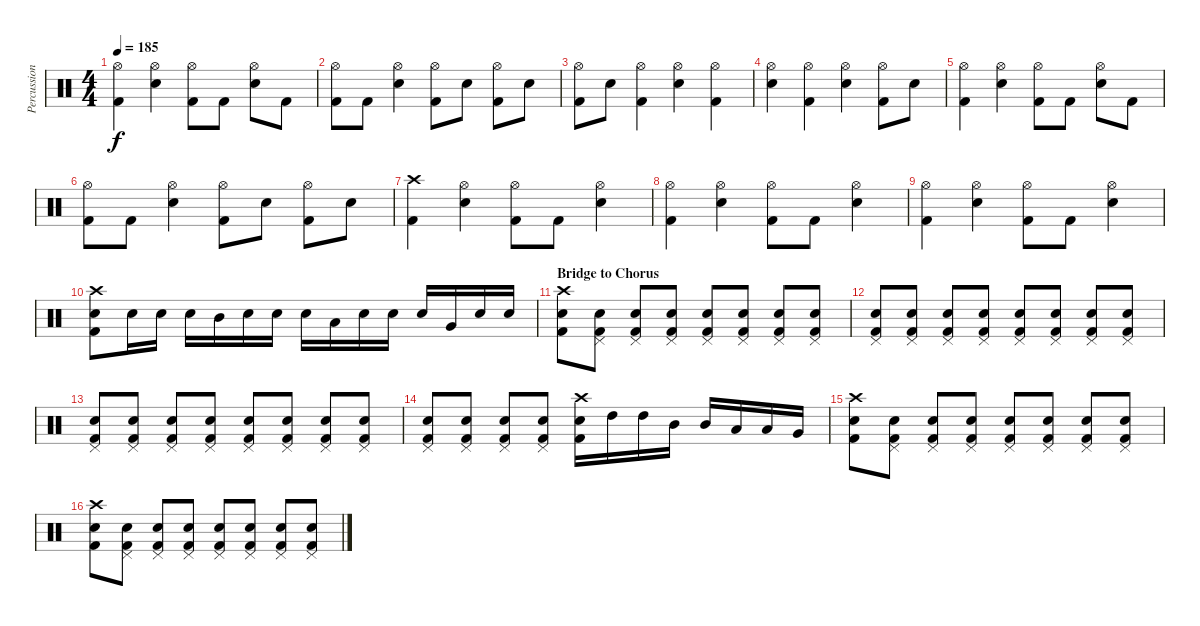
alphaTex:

\track ("Percussions" "Percussion") {instrument percussion}
\staff {score}
\articulation defaults
\ts (4 4)
\tempo 185
\clef neutral
\ks c
("Hi-Hat (open)" "Kick (hit) 2").4{dy f} ("Hi-Hat (open)" "Snare (hit) 2").4 ("Hi-Hat (open)" "Kick (hit) 2").8 "Kick (hit) 2".8 ("Hi-Hat (open)" "Snare (hit) 2").8 "Kick (hit) 2".8 |
("Hi-Hat (open)" "Kick (hit) 2").8 "Kick (hit) 2".8 ("Hi-Hat (open)" "Snare (hit) 2").4 ("Hi-Hat (open)" "Kick (hit) 2").8 "Snare (hit) 2".8 ("Hi-Hat (open)" "Kick (hit) 2").8 "Snare (hit) 2".8 |
("Hi-Hat (open)" "Kick (hit) 2").8 "Snare (hit) 2".8 ("Hi-Hat (open)" "Kick (hit) 2").4 ("Hi-Hat (open)" "Snare (hit) 2").4 ("Hi-Hat (open)" "Kick (hit) 2").4 |
("Hi-Hat (open)" "Snare (hit) 2").4 ("Hi-Hat (open)" "Kick (hit) 2").4 ("Hi-Hat (open)" "Snare (hit) 2").4 ("Hi-Hat (open)" "Kick (hit) 2").8 "Snare (hit) 2".8 |
("Hi-Hat (open)" "Kick (hit) 2").4 ("Hi-Hat (open)" "Snare (hit) 2").4 ("Hi-Hat (open)" "Kick (hit) 2").8 "Kick (hit) 2".8 ("Hi-Hat (open)" "Snare (hit) 2").8 "Kick (hit) 2".8 |
("Hi-Hat (open)" "Kick (hit) 2").8 "Kick (hit) 2".8 ("Hi-Hat (open)" "Snare (hit) 2").4 ("Hi-Hat (open)" "Kick (hit) 2").8 "Snare (hit) 2".8 ("Hi-Hat (open)" "Kick (hit) 2").8 "Snare (hit) 2".8 |
("Crash high (hit)" "Kick (hit) 2").4 ("Hi-Hat (open)" "Snare (hit) 2").4 ("Hi-Hat (open)" "Kick (hit) 2").8 "Kick (hit) 2".8 ("Hi-Hat (open)" "Snare (hit) 2").4 |
("Hi-Hat (open)" "Kick (hit) 2").4 ("Hi-Hat (open)" "Snare (hit) 2").4 ("Hi-Hat (open)" "Kick (hit) 2").8 "Kick (hit) 2".8 ("Hi-Hat (open)" "Snare (hit) 2").4 |
("Hi-Hat (open)" "Kick (hit) 2").4 ("Hi-Hat (open)" "Snare (hit) 2").4 ("Hi-Hat (open)" "Kick (hit) 2").8 "Kick (hit) 2".8 ("Hi-Hat (open)" "Snare (hit) 2").4 |
("Crash high (hit)" "Snare (hit) 2" "Kick (hit) 2").8 "Snare (hit) 2".16 "Snare (hit) 2".16 "Snare (hit) 2".16 "Mid Tom (hit)".16 "Snare (hit) 2".16 "Snare (hit) 2".16 "Snare (hit) 2".16 "Low Tom (hit)".16 "Snare (hit) 2".16 "Snare (hit) 2".16 "Snare (hit) 2".16 "Very Low Tom (hit)".16 "Snare (hit) 2".16 "Snare (hit) 2".16 |
\section ("" "Bridge to Chorus")
("Crash high (hit)" "Snare (hit) 2" "Kick (hit) 2").8 ("Pedal Hi-Hat (hit)" "Snare (hit) 2" "Kick (hit) 2").8 ("Pedal Hi-Hat (hit)" "Snare (hit) 2" "Kick (hit) 2").8 ("Pedal Hi-Hat (hit)" "Snare (hit) 2" "Kick (hit) 2").8 ("Pedal Hi-Hat (hit)" "Snare (hit) 2" "Kick (hit) 2").8 ("Pedal Hi-Hat (hit)" "Snare (hit) 2" "Kick (hit) 2").8 ("Pedal Hi-Hat (hit)" "Snare (hit) 2" "Kick (hit) 2").8 ("Pedal Hi-Hat (hit)" "Snare (hit) 2" "Kick (hit) 2").8 |
("Pedal Hi-Hat (hit)" "Snare (hit) 2" "Kick (hit) 2").8 ("Pedal Hi-Hat (hit)" "Snare (hit) 2" "Kick (hit) 2").8 ("Pedal Hi-Hat (hit)" "Snare (hit) 2" "Kick (hit) 2").8 ("Pedal Hi-Hat (hit)" "Snare (hit) 2" "Kick (hit) 2").8 ("Pedal Hi-Hat (hit)" "Snare (hit) 2" "Kick (hit) 2").8 ("Pedal Hi-Hat (hit)" "Snare (hit) 2" "Kick (hit) 2").8 ("Pedal Hi-Hat (hit)" "Snare (hit) 2" "Kick (hit) 2").8 ("Pedal Hi-Hat (hit)" "Snare (hit) 2" "Kick (hit) 2").8 |
("Pedal Hi-Hat (hit)" "Snare (hit) 2" "Kick (hit) 2").8 ("Pedal Hi-Hat (hit)" "Snare (hit) 2" "Kick (hit) 2").8 ("Pedal Hi-Hat (hit)" "Snare (hit) 2" "Kick (hit) 2").8 ("Pedal Hi-Hat (hit)" "Snare (hit) 2" "Kick (hit) 2").8 ("Pedal Hi-Hat (hit)" "Snare (hit) 2" "Kick (hit) 2").8 ("Pedal Hi-Hat (hit)" "Snare (hit) 2" "Kick (hit) 2").8 ("Pedal Hi-Hat (hit)" "Snare (hit) 2" "Kick (hit) 2").8 ("Pedal Hi-Hat (hit)" "Snare (hit) 2" "Kick (hit) 2").8 |
("Pedal Hi-Hat (hit)" "Snare (hit) 2" "Kick (hit) 2").8 ("Pedal Hi-Hat (hit)" "Snare (hit) 2" "Kick (hit) 2").8 ("Pedal Hi-Hat (hit)" "Snare (hit) 2" "Kick (hit) 2").8 ("Pedal Hi-Hat (hit)" "Snare (hit) 2" "Kick (hit) 2").8 ("Crash high (hit)" "Snare (hit) 2" "Kick (hit) 2").16 "High Tom (hit)".16 "High Tom (hit)".16 "Mid Tom (hit)".16 "Mid Tom (hit)".16 "Low Tom (hit)".16 "Low Tom (hit)".16 "Very Low Tom (hit)".16 |
("Crash high (hit)" "Snare (hit) 2" "Kick (hit) 2").8 ("Pedal Hi-Hat (hit)" "Snare (hit) 2" "Kick (hit) 2").8 ("Pedal Hi-Hat (hit)" "Snare (hit) 2" "Kick (hit) 2").8 ("Pedal Hi-Hat (hit)" "Snare (hit) 2" "Kick (hit) 2").8 ("Pedal Hi-Hat (hit)" "Snare (hit) 2" "Kick (hit) 2").8 ("Pedal Hi-Hat (hit)" "Snare (hit) 2" "Kick (hit) 2").8 ("Pedal Hi-Hat (hit)" "Snare (hit) 2" "Kick (hit) 2").8 ("Pedal Hi-Hat (hit)" "Snare (hit) 2" "Kick (hit) 2").8 |
("Crash high (hit)" "Snare (hit) 2" "Kick (hit) 2").8 ("Pedal Hi-Hat (hit)" "Snare (hit) 2" "Kick (hit) 2").8 ("Pedal Hi-Hat (hit)" "Snare (hit) 2" "Kick (hit) 2").8 ("Pedal Hi-Hat (hit)" "Snare (hit) 2" "Kick (hit) 2").8 ("Pedal Hi-Hat (hit)" "Snare (hit) 2" "Kick (hit) 2").8 ("Pedal Hi-Hat (hit)" "Snare (hit) 2" "Kick (hit) 2").8 ("Pedal Hi-Hat (hit)" "Snare (hit) 2" "Kick (hit) 2").8 ("Pedal Hi-Hat (hit)" "Snare (hit) 2" "Kick (hit) 2").8
